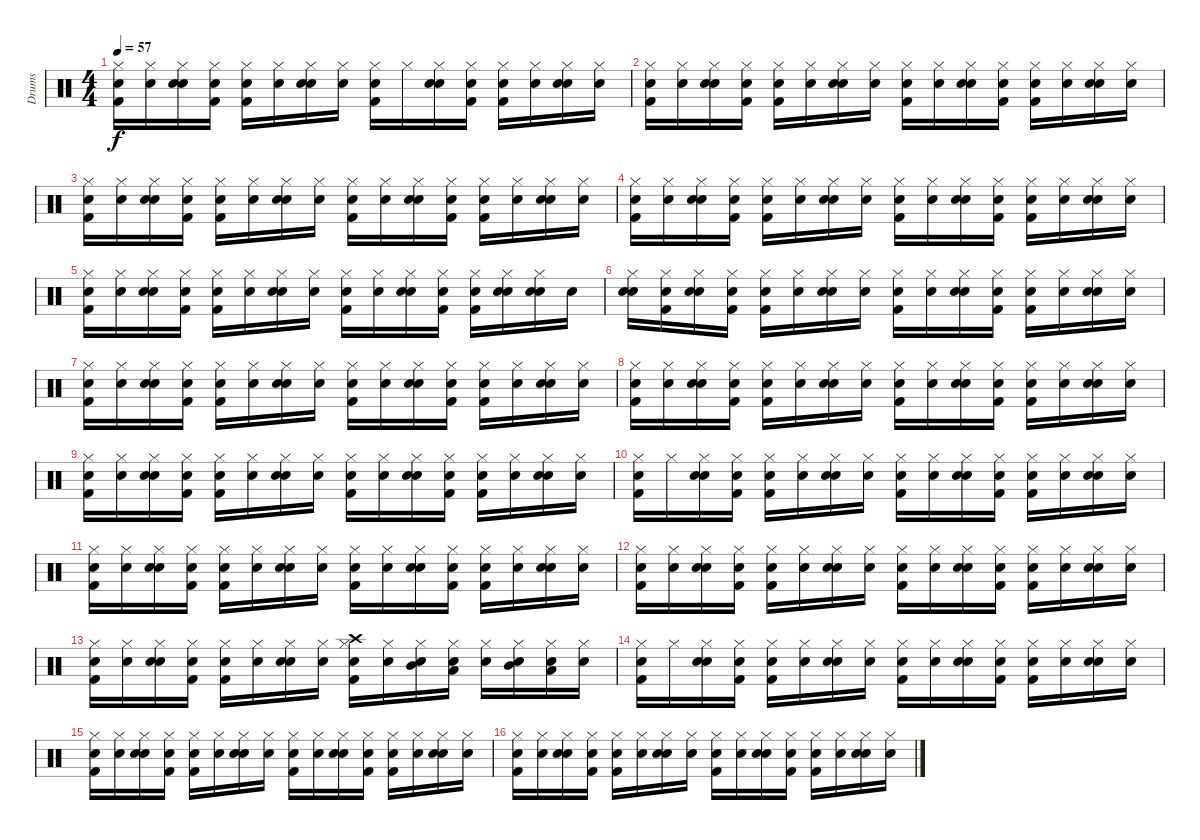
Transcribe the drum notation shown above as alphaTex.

\track ("Drums" "Drums") {instrument percussion}
\staff {score}
\articulation defaults
\ts (4 4)
\tempo 57
\clef neutral
\ks c
("Snare (hit)" "Kick (hit) 2" "Hi-Hat (closed)").16{dy f} ("Snare (hit)" "Hi-Hat (closed)").16 ("Snare (hit)" "Electric Snare (hit)" "Hi-Hat (closed)").16 ("Snare (hit)" "Kick (hit) 2" "Hi-Hat (closed)").16 ("Snare (hit)" "Kick (hit) 2" "Hi-Hat (closed)").16 ("Snare (hit)" "Hi-Hat (closed)").16 ("Snare (hit)" "Electric Snare (hit)" "Hi-Hat (closed)").16 ("Snare (hit)" "Hi-Hat (closed)").16 ("Snare (hit)" "Kick (hit) 2" "Hi-Hat (closed)").16 "Hi-Hat (closed)".16 ("Snare (hit)" "Electric Snare (hit)" "Hi-Hat (closed)").16 ("Snare (hit)" "Kick (hit) 2" "Hi-Hat (closed)").16 ("Snare (hit)" "Hi-Hat (closed)" "Kick (hit) 2").16 ("Snare (hit)" "Hi-Hat (closed)").16 ("Snare (hit)" "Electric Snare (hit)" "Hi-Hat (closed)").16 ("Snare (hit)" "Hi-Hat (closed)").16 |
("Snare (hit)" "Kick (hit) 2" "Hi-Hat (closed)").16 ("Snare (hit)" "Hi-Hat (closed)").16 ("Snare (hit)" "Electric Snare (hit)" "Hi-Hat (closed)").16 ("Snare (hit)" "Kick (hit) 2" "Hi-Hat (closed)").16 ("Snare (hit)" "Kick (hit) 2" "Hi-Hat (closed)").16 ("Snare (hit)" "Hi-Hat (closed)").16 ("Snare (hit)" "Electric Snare (hit)" "Hi-Hat (closed)").16 ("Snare (hit)" "Hi-Hat (closed)").16 ("Snare (hit)" "Kick (hit) 2" "Hi-Hat (closed)").16 ("Snare (hit)" "Hi-Hat (closed)").16 ("Snare (hit)" "Electric Snare (hit)" "Hi-Hat (closed)").16 ("Snare (hit)" "Kick (hit) 2" "Hi-Hat (closed)").16 ("Snare (hit)" "Hi-Hat (closed)" "Kick (hit) 2").16 ("Snare (hit)" "Hi-Hat (closed)").16 ("Snare (hit)" "Electric Snare (hit)" "Hi-Hat (closed)").16 ("Snare (hit)" "Hi-Hat (closed)").16 |
("Snare (hit)" "Kick (hit) 2" "Hi-Hat (closed)").16 ("Snare (hit)" "Hi-Hat (closed)").16 ("Snare (hit)" "Electric Snare (hit)" "Hi-Hat (closed)").16 ("Snare (hit)" "Kick (hit) 2" "Hi-Hat (closed)").16 ("Snare (hit)" "Kick (hit) 2" "Hi-Hat (closed)").16 ("Snare (hit)" "Hi-Hat (closed)").16 ("Snare (hit)" "Electric Snare (hit)" "Hi-Hat (closed)").16 ("Snare (hit)" "Hi-Hat (closed)").16 ("Snare (hit)" "Kick (hit) 2" "Hi-Hat (closed)").16 ("Snare (hit)" "Hi-Hat (closed)").16 ("Snare (hit)" "Electric Snare (hit)" "Hi-Hat (closed)").16 ("Snare (hit)" "Kick (hit) 2" "Hi-Hat (closed)").16 ("Snare (hit)" "Hi-Hat (closed)" "Kick (hit) 2").16 ("Snare (hit)" "Hi-Hat (closed)").16 ("Snare (hit)" "Electric Snare (hit)" "Hi-Hat (closed)").16 ("Snare (hit)" "Hi-Hat (closed)").16 |
("Snare (hit)" "Kick (hit) 2" "Hi-Hat (closed)").16 ("Snare (hit)" "Hi-Hat (closed)").16 ("Snare (hit)" "Electric Snare (hit)" "Hi-Hat (closed)").16 ("Snare (hit)" "Kick (hit) 2" "Hi-Hat (closed)").16 ("Snare (hit)" "Kick (hit) 2" "Hi-Hat (closed)").16 ("Snare (hit)" "Hi-Hat (closed)").16 ("Snare (hit)" "Electric Snare (hit)" "Hi-Hat (closed)").16 ("Snare (hit)" "Hi-Hat (closed)").16 ("Snare (hit)" "Kick (hit) 2" "Hi-Hat (closed)").16 ("Snare (hit)" "Hi-Hat (closed)").16 ("Snare (hit)" "Electric Snare (hit)" "Hi-Hat (closed)").16 ("Snare (hit)" "Kick (hit) 2" "Hi-Hat (closed)").16 ("Snare (hit)" "Hi-Hat (closed)" "Kick (hit) 2").16 ("Snare (hit)" "Hi-Hat (closed)").16 ("Snare (hit)" "Electric Snare (hit)" "Hi-Hat (closed)").16 ("Snare (hit)" "Hi-Hat (closed)").16 |
("Snare (hit)" "Kick (hit) 2" "Hi-Hat (closed)").16 ("Snare (hit)" "Hi-Hat (closed)").16 ("Snare (hit)" "Electric Snare (hit)" "Hi-Hat (closed)").16 ("Snare (hit)" "Kick (hit) 2" "Hi-Hat (closed)").16 ("Snare (hit)" "Kick (hit) 2" "Hi-Hat (closed)").16 ("Snare (hit)" "Hi-Hat (closed)").16 ("Snare (hit)" "Electric Snare (hit)" "Hi-Hat (closed)").16 ("Snare (hit)" "Hi-Hat (closed)").16 ("Snare (hit)" "Kick (hit) 2" "Hi-Hat (closed)").16 ("Snare (hit)" "Hi-Hat (closed)").16 ("Snare (hit)" "Electric Snare (hit)" "Hi-Hat (closed)").16 ("Snare (hit)" "Kick (hit) 2" "Hi-Hat (closed)").16 ("Snare (hit)" "Kick (hit) 2" "Hi-Hat (closed)").16 ("Snare (hit)" "Electric Snare (hit)" "Hi-Hat (closed)").16 ("Snare (hit)" "Electric Snare (hit)" "Hi-Hat (closed)").16 "Electric Snare (hit)".16 |
("Snare (hit)" "Electric Snare (hit)" "Hi-Hat (closed)").16 ("Snare (hit)" "Kick (hit) 2" "Hi-Hat (closed)").16 ("Snare (hit)" "Electric Snare (hit)" "Hi-Hat (closed)").16 ("Snare (hit)" "Kick (hit) 2" "Hi-Hat (closed)").16 ("Snare (hit)" "Hi-Hat (closed)" "Kick (hit) 2").16 ("Snare (hit)" "Hi-Hat (closed)").16 ("Snare (hit)" "Electric Snare (hit)" "Hi-Hat (closed)").16 ("Snare (hit)" "Hi-Hat (closed)").16 ("Snare (hit)" "Kick (hit) 2" "Hi-Hat (closed)").16 ("Snare (hit)" "Hi-Hat (closed)").16 ("Snare (hit)" "Electric Snare (hit)" "Hi-Hat (closed)").16 ("Snare (hit)" "Kick (hit) 2" "Hi-Hat (closed)").16 ("Snare (hit)" "Kick (hit) 2" "Hi-Hat (closed)").16 ("Snare (hit)" "Hi-Hat (closed)").16 ("Snare (hit)" "Electric Snare (hit)" "Hi-Hat (closed)").16 ("Snare (hit)" "Hi-Hat (closed)").16 |
("Snare (hit)" "Kick (hit) 2" "Hi-Hat (closed)").16 ("Snare (hit)" "Hi-Hat (closed)").16 ("Snare (hit)" "Electric Snare (hit)" "Hi-Hat (closed)").16 ("Snare (hit)" "Kick (hit) 2" "Hi-Hat (closed)").16 ("Snare (hit)" "Hi-Hat (closed)" "Kick (hit) 2").16 ("Snare (hit)" "Hi-Hat (closed)").16 ("Snare (hit)" "Electric Snare (hit)" "Hi-Hat (closed)").16 ("Snare (hit)" "Hi-Hat (closed)").16 ("Snare (hit)" "Kick (hit) 2" "Hi-Hat (closed)").16 ("Snare (hit)" "Hi-Hat (closed)").16 ("Snare (hit)" "Electric Snare (hit)" "Hi-Hat (closed)").16 ("Snare (hit)" "Kick (hit) 2" "Hi-Hat (closed)").16 ("Snare (hit)" "Kick (hit) 2" "Hi-Hat (closed)").16 ("Snare (hit)" "Hi-Hat (closed)").16 ("Snare (hit)" "Electric Snare (hit)" "Hi-Hat (closed)").16 ("Snare (hit)" "Hi-Hat (closed)").16 |
("Snare (hit)" "Kick (hit) 2" "Hi-Hat (closed)").16 ("Snare (hit)" "Hi-Hat (closed)").16 ("Snare (hit)" "Electric Snare (hit)" "Hi-Hat (closed)").16 ("Snare (hit)" "Kick (hit) 2" "Hi-Hat (closed)").16 ("Snare (hit)" "Hi-Hat (closed)" "Kick (hit) 2").16 ("Snare (hit)" "Hi-Hat (closed)").16 ("Snare (hit)" "Electric Snare (hit)" "Hi-Hat (closed)").16 ("Snare (hit)" "Hi-Hat (closed)").16 ("Snare (hit)" "Kick (hit) 2" "Hi-Hat (closed)").16 ("Snare (hit)" "Hi-Hat (closed)").16 ("Snare (hit)" "Electric Snare (hit)" "Hi-Hat (closed)").16 ("Snare (hit)" "Kick (hit) 2" "Hi-Hat (closed)").16 ("Snare (hit)" "Kick (hit) 2" "Hi-Hat (closed)").16 ("Snare (hit)" "Hi-Hat (closed)").16 ("Snare (hit)" "Electric Snare (hit)" "Hi-Hat (closed)").16 ("Snare (hit)" "Hi-Hat (closed)").16 |
("Snare (hit)" "Kick (hit) 2" "Hi-Hat (closed)").16 ("Snare (hit)" "Hi-Hat (closed)").16 ("Snare (hit)" "Electric Snare (hit)" "Hi-Hat (closed)").16 ("Snare (hit)" "Kick (hit) 2" "Hi-Hat (closed)").16 ("Snare (hit)" "Hi-Hat (closed)" "Kick (hit) 2").16 ("Snare (hit)" "Hi-Hat (closed)").16 ("Snare (hit)" "Electric Snare (hit)" "Hi-Hat (closed)").16 ("Snare (hit)" "Hi-Hat (closed)").16 ("Snare (hit)" "Kick (hit) 2" "Hi-Hat (closed)").16 ("Snare (hit)" "Hi-Hat (closed)").16 ("Snare (hit)" "Electric Snare (hit)" "Hi-Hat (closed)").16 ("Snare (hit)" "Kick (hit) 2" "Hi-Hat (closed)").16 ("Snare (hit)" "Kick (hit) 2" "Hi-Hat (closed)").16 ("Snare (hit)" "Hi-Hat (closed)").16 ("Snare (hit)" "Electric Snare (hit)" "Hi-Hat (closed)").16 ("Snare (hit)" "Hi-Hat (closed)").16 |
("Snare (hit)" "Kick (hit) 2" "Hi-Hat (closed)").16 "Hi-Hat (closed)".16 ("Snare (hit)" "Electric Snare (hit)" "Hi-Hat (closed)").16 ("Snare (hit)" "Kick (hit) 2" "Hi-Hat (closed)").16 ("Snare (hit)" "Hi-Hat (closed)" "Kick (hit) 2").16 ("Snare (hit)" "Hi-Hat (closed)").16 ("Snare (hit)" "Electric Snare (hit)" "Hi-Hat (closed)").16 ("Snare (hit)" "Hi-Hat (closed)").16 ("Snare (hit)" "Kick (hit) 2" "Hi-Hat (closed)").16 ("Snare (hit)" "Hi-Hat (closed)").16 ("Snare (hit)" "Electric Snare (hit)" "Hi-Hat (closed)").16 ("Snare (hit)" "Kick (hit) 2" "Hi-Hat (closed)").16 ("Snare (hit)" "Kick (hit) 2" "Hi-Hat (closed)").16 ("Snare (hit)" "Hi-Hat (closed)").16 ("Snare (hit)" "Electric Snare (hit)" "Hi-Hat (closed)").16 ("Snare (hit)" "Hi-Hat (closed)").16 |
("Snare (hit)" "Kick (hit) 2" "Hi-Hat (closed)").16 ("Snare (hit)" "Hi-Hat (closed)").16 ("Snare (hit)" "Electric Snare (hit)" "Hi-Hat (closed)").16 ("Snare (hit)" "Kick (hit) 2" "Hi-Hat (closed)").16 ("Snare (hit)" "Hi-Hat (closed)" "Kick (hit) 2").16 ("Snare (hit)" "Hi-Hat (closed)").16 ("Snare (hit)" "Electric Snare (hit)" "Hi-Hat (closed)").16 ("Snare (hit)" "Hi-Hat (closed)").16 ("Snare (hit)" "Kick (hit) 2" "Hi-Hat (closed)").16 ("Snare (hit)" "Hi-Hat (closed)").16 ("Snare (hit)" "Electric Snare (hit)" "Hi-Hat (closed)").16 ("Snare (hit)" "Kick (hit) 2" "Hi-Hat (closed)").16 ("Snare (hit)" "Kick (hit) 2" "Hi-Hat (closed)").16 ("Snare (hit)" "Hi-Hat (closed)").16 ("Snare (hit)" "Electric Snare (hit)" "Hi-Hat (closed)").16 ("Snare (hit)" "Hi-Hat (closed)").16 |
("Snare (hit)" "Kick (hit) 2" "Hi-Hat (closed)").16 ("Snare (hit)" "Hi-Hat (closed)").16 ("Snare (hit)" "Electric Snare (hit)" "Hi-Hat (closed)").16 ("Snare (hit)" "Kick (hit) 2" "Hi-Hat (closed)").16 ("Snare (hit)" "Hi-Hat (closed)" "Kick (hit) 2").16 ("Snare (hit)" "Hi-Hat (closed)").16 ("Snare (hit)" "Electric Snare (hit)" "Hi-Hat (closed)").16 ("Snare (hit)" "Hi-Hat (closed)").16 ("Snare (hit)" "Kick (hit) 2" "Hi-Hat (closed)").16 ("Snare (hit)" "Hi-Hat (closed)").16 ("Snare (hit)" "Electric Snare (hit)" "Hi-Hat (closed)").16 ("Snare (hit)" "Kick (hit) 2" "Hi-Hat (closed)").16 ("Snare (hit)" "Kick (hit) 2" "Hi-Hat (closed)").16 ("Snare (hit)" "Hi-Hat (closed)").16 ("Snare (hit)" "Electric Snare (hit)" "Hi-Hat (closed)").16 ("Snare (hit)" "Hi-Hat (closed)").16 |
("Snare (hit)" "Kick (hit) 2" "Hi-Hat (closed)").16 ("Snare (hit)" "Hi-Hat (closed)").16 ("Snare (hit)" "Electric Snare (hit)" "Hi-Hat (closed)").16 ("Snare (hit)" "Kick (hit) 2" "Hi-Hat (closed)").16 ("Snare (hit)" "Hi-Hat (closed)" "Kick (hit) 2").16 ("Snare (hit)" "Hi-Hat (closed)").16 ("Snare (hit)" "Electric Snare (hit)" "Hi-Hat (closed)").16 ("Snare (hit)" "Hi-Hat (closed)").16 ("Snare (hit)" "Crash high (hit)" "Kick (hit) 2" "Hi-Hat (closed)").16 ("Snare (hit)" "Hi-Hat (closed)").16 ("Snare (hit)" "Mid Tom (hit)" "Hi-Hat (closed)").16 ("Snare (hit)" "Low Tom (hit)" "Hi-Hat (closed)").16 ("Snare (hit)" "Hi-Hat (closed)").16 ("Snare (hit)" "Mid Tom (hit)" "Hi-Hat (closed)").16 ("Snare (hit)" "Low Tom (hit)" "Hi-Hat (closed)").16 ("Snare (hit)" "Hi-Hat (closed)").16 |
("Snare (hit)" "Kick (hit) 2" "Hi-Hat (closed)").16 "Hi-Hat (closed)".16 ("Snare (hit)" "Snare (hit) 2" "Hi-Hat (closed)").16 ("Snare (hit)" "Kick (hit) 2" "Hi-Hat (closed)").16 ("Snare (hit)" "Hi-Hat (closed)" "Kick (hit) 2").16 ("Snare (hit)" "Hi-Hat (closed)").16 ("Snare (hit)" "Snare (hit) 2" "Hi-Hat (closed)").16 ("Snare (hit)" "Hi-Hat (closed)").16 ("Snare (hit)" "Kick (hit) 2" "Hi-Hat (closed)").16 ("Snare (hit)" "Hi-Hat (closed)").16 ("Snare (hit)" "Snare (hit) 2" "Hi-Hat (closed)").16 ("Snare (hit)" "Kick (hit) 2" "Hi-Hat (closed)").16 ("Snare (hit)" "Kick (hit) 2" "Hi-Hat (closed)").16 ("Snare (hit)" "Hi-Hat (closed)").16 ("Snare (hit)" "Snare (hit) 2" "Hi-Hat (closed)").16 ("Snare (hit)" "Hi-Hat (closed)").16 |
("Snare (hit)" "Kick (hit) 2" "Hi-Hat (closed)").16 ("Snare (hit)" "Hi-Hat (closed)").16 ("Snare (hit)" "Snare (hit) 2" "Hi-Hat (closed)").16 ("Snare (hit)" "Kick (hit) 2" "Hi-Hat (closed)").16 ("Snare (hit)" "Hi-Hat (closed)" "Kick (hit) 2").16 ("Snare (hit)" "Hi-Hat (closed)").16 ("Snare (hit)" "Snare (hit) 2" "Hi-Hat (closed)").16 ("Snare (hit)" "Hi-Hat (closed)").16 ("Snare (hit)" "Kick (hit) 2" "Hi-Hat (closed)").16 ("Snare (hit)" "Hi-Hat (closed)").16 ("Snare (hit)" "Snare (hit) 2" "Hi-Hat (closed)").16 ("Snare (hit)" "Kick (hit) 2" "Hi-Hat (closed)").16 ("Snare (hit)" "Kick (hit) 2" "Hi-Hat (closed)").16 ("Snare (hit)" "Hi-Hat (closed)").16 ("Snare (hit)" "Snare (hit) 2" "Hi-Hat (closed)").16 ("Snare (hit)" "Hi-Hat (closed)").16 |
("Snare (hit)" "Kick (hit) 2" "Hi-Hat (closed)").16 ("Snare (hit)" "Hi-Hat (closed)").16 ("Snare (hit)" "Snare (hit) 2" "Hi-Hat (closed)").16 ("Snare (hit)" "Kick (hit) 2" "Hi-Hat (closed)").16 ("Snare (hit)" "Hi-Hat (closed)" "Kick (hit) 2").16 ("Snare (hit)" "Hi-Hat (closed)").16 ("Snare (hit)" "Snare (hit) 2" "Hi-Hat (closed)").16 ("Snare (hit)" "Hi-Hat (closed)").16 ("Snare (hit)" "Kick (hit) 2" "Hi-Hat (closed)").16 ("Snare (hit)" "Hi-Hat (closed)").16 ("Snare (hit)" "Snare (hit) 2" "Hi-Hat (closed)").16 ("Snare (hit)" "Kick (hit) 2" "Hi-Hat (closed)").16 ("Snare (hit)" "Kick (hit) 2" "Hi-Hat (closed)").16 ("Snare (hit)" "Hi-Hat (closed)").16 ("Snare (hit)" "Snare (hit) 2" "Hi-Hat (closed)").16 ("Snare (hit)" "Hi-Hat (closed)").16
